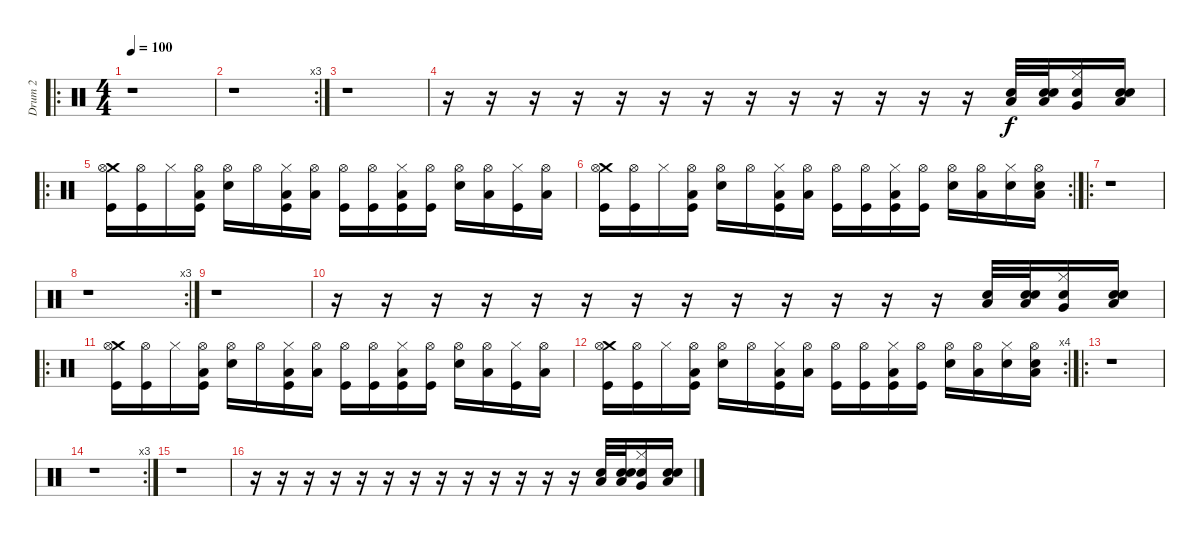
\track ("Drum 2" "Drum 2") {instrument percussion}
\staff {score}
\articulation defaults
\ro
\ts (4 4)
\tempo 100
\clef neutral
\ks c
r.1{dy f} |
\rc 3
r.1 |
r.1 |
r.16 r.16 r.16 r.16 r.16 r.16 r.16 r.16 r.16 r.16 r.16 r.16 r.16 ("Electric Snare (hit)" "Low Tom (hit)").32 ("Snare (hit)" "Electric Snare (hit)" "Low Tom (hit)").32 ("Hi-Hat (closed)" "Electric Snare (hit)" "Very Low Tom (hit)").16 ("Snare (hit)" "Electric Snare (hit)" "Low Floor Tom (hit)").16 |
\ro
("Crash medium (hit)" "Hi-Hat (open)" "Kick (hit)").16 ("Hi-Hat (open)" "Kick (hit)").16 "Hi-Hat (closed)".16 ("Hi-Hat (open)" "Kick (hit)" "Low Tom (hit)").16 ("Hi-Hat (open)" "Electric Snare (hit)").16 "Hi-Hat (open)".16 ("Hi-Hat (closed)" "Kick (hit)" "Low Floor Tom (hit)").16 ("Hi-Hat (open)" "Low Floor Tom (hit)").16 ("Hi-Hat (open)" "Kick (hit)").16 ("Hi-Hat (open)" "Kick (hit)").16 ("Hi-Hat (closed)" "Kick (hit)" "Low Tom (hit)").16 ("Hi-Hat (open)" "Kick (hit)").16 ("Hi-Hat (open)" "Electric Snare (hit)").16 ("Hi-Hat (open)" "Low Floor Tom (hit)").16 ("Hi-Hat (closed)" "Kick (hit)").16 ("Hi-Hat (open)" "Low Floor Tom (hit)").16 |
\rc 2
("Crash medium (hit)" "Hi-Hat (open)" "Kick (hit)").16 ("Hi-Hat (open)" "Kick (hit)").16 "Hi-Hat (closed)".16 ("Hi-Hat (open)" "Kick (hit)" "Low Tom (hit)").16 ("Hi-Hat (open)" "Electric Snare (hit)").16 "Hi-Hat (open)".16 ("Hi-Hat (closed)" "Kick (hit)" "Low Floor Tom (hit)").16 ("Hi-Hat (open)" "Low Floor Tom (hit)").16 ("Hi-Hat (open)" "Kick (hit)").16 ("Hi-Hat (open)" "Kick (hit)").16 ("Hi-Hat (closed)" "Kick (hit)" "Low Tom (hit)").16 ("Hi-Hat (open)" "Kick (hit)").16 ("Hi-Hat (open)" "Electric Snare (hit)").16 ("Hi-Hat (open)" "Low Floor Tom (hit)").16 ("Hi-Hat (closed)" "Electric Snare (hit)").16 ("Hi-Hat (open)" "Electric Snare (hit)" "Low Floor Tom (hit)").16 |
\ro
r.1 |
\rc 3
r.1 |
r.1 |
r.16 r.16 r.16 r.16 r.16 r.16 r.16 r.16 r.16 r.16 r.16 r.16 r.16 ("Electric Snare (hit)" "Low Tom (hit)").32 ("Snare (hit)" "Electric Snare (hit)" "Low Tom (hit)").32 ("Hi-Hat (closed)" "Electric Snare (hit)" "Very Low Tom (hit)").16 ("Snare (hit)" "Electric Snare (hit)" "Low Floor Tom (hit)").16 |
\ro
("Crash medium (hit)" "Hi-Hat (open)" "Kick (hit)").16 ("Hi-Hat (open)" "Kick (hit)").16 "Hi-Hat (closed)".16 ("Hi-Hat (open)" "Kick (hit)" "Low Tom (hit)").16 ("Hi-Hat (open)" "Electric Snare (hit)").16 "Hi-Hat (open)".16 ("Hi-Hat (closed)" "Kick (hit)" "Low Floor Tom (hit)").16 ("Hi-Hat (open)" "Low Floor Tom (hit)").16 ("Hi-Hat (open)" "Kick (hit)").16 ("Hi-Hat (open)" "Kick (hit)").16 ("Hi-Hat (closed)" "Kick (hit)" "Low Tom (hit)").16 ("Hi-Hat (open)" "Kick (hit)").16 ("Hi-Hat (open)" "Electric Snare (hit)").16 ("Hi-Hat (open)" "Low Floor Tom (hit)").16 ("Hi-Hat (closed)" "Kick (hit)").16 ("Hi-Hat (open)" "Low Floor Tom (hit)").16 |
\rc 4
("Crash medium (hit)" "Hi-Hat (open)" "Kick (hit)").16 ("Hi-Hat (open)" "Kick (hit)").16 "Hi-Hat (closed)".16 ("Hi-Hat (open)" "Kick (hit)" "Low Tom (hit)").16 ("Hi-Hat (open)" "Electric Snare (hit)").16 "Hi-Hat (open)".16 ("Hi-Hat (closed)" "Kick (hit)" "Low Floor Tom (hit)").16 ("Hi-Hat (open)" "Low Floor Tom (hit)").16 ("Hi-Hat (open)" "Kick (hit)").16 ("Hi-Hat (open)" "Kick (hit)").16 ("Hi-Hat (closed)" "Kick (hit)" "Low Tom (hit)").16 ("Hi-Hat (open)" "Kick (hit)").16 ("Hi-Hat (open)" "Electric Snare (hit)").16 ("Hi-Hat (open)" "Low Floor Tom (hit)").16 ("Hi-Hat (closed)" "Electric Snare (hit)").16 ("Hi-Hat (open)" "Electric Snare (hit)" "Low Floor Tom (hit)").16 |
\ro
r.1 |
\rc 3
r.1 |
r.1 |
r.16 r.16 r.16 r.16 r.16 r.16 r.16 r.16 r.16 r.16 r.16 r.16 r.16 ("Electric Snare (hit)" "Low Tom (hit)").32 ("Snare (hit)" "Electric Snare (hit)" "Low Tom (hit)").32 ("Hi-Hat (closed)" "Electric Snare (hit)" "Very Low Tom (hit)").16 ("Snare (hit)" "Electric Snare (hit)" "Low Floor Tom (hit)").16
